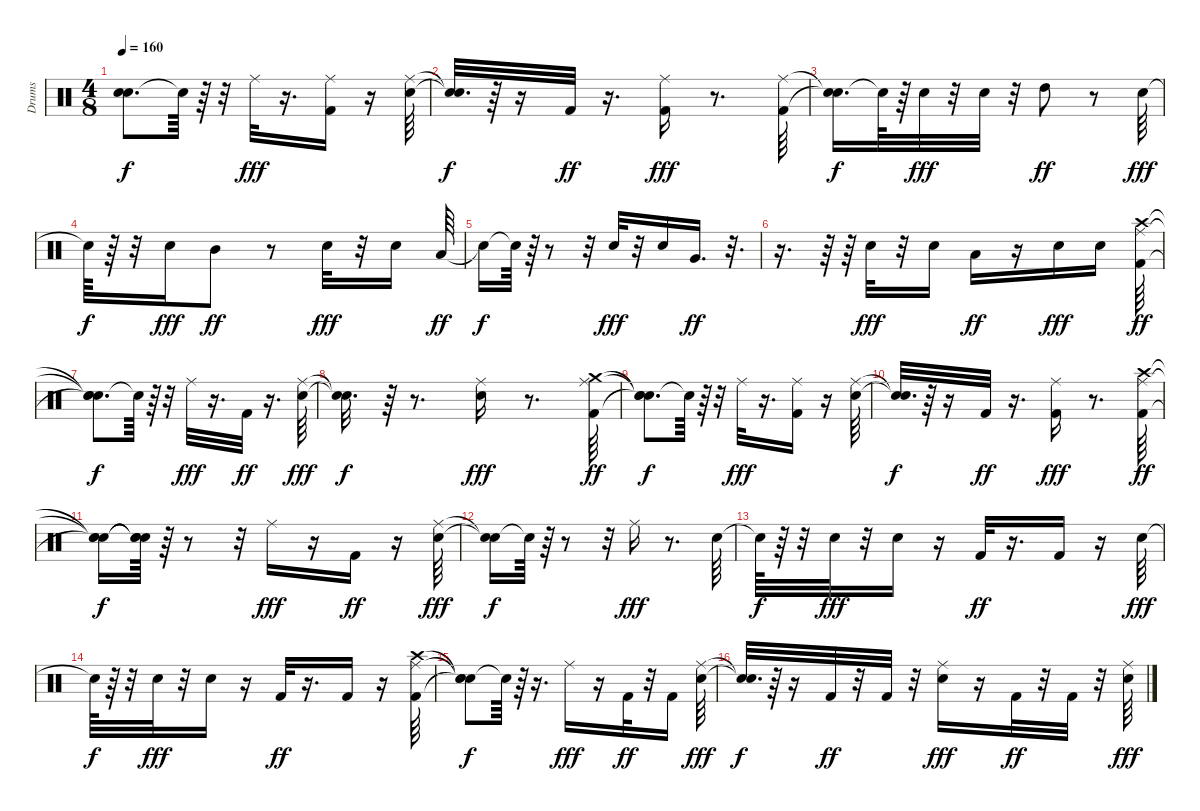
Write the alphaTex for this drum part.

\track ("Drums" "Drums") {instrument percussion}
\staff {score}
\articulation defaults
\ts (4 8)
\tempo 160
\clef neutral
\ks c
("Snare (hit)"{t} "Snare (hit)"{t}).8{d dy f} "Snare (hit)"{t}.64 r.64 r.32 "Ride (middle)".32{dy fff} r.16{d} ("Kick (hit) 2" "Ride (middle)").16 r.16 ("Snare (hit) 2" "Ride (middle)").64 |
("Snare (hit)"{t} "Snare (hit)"{t}).32{d dy f} r.64 r.16 "Kick (hit) 2".32{dy ff} r.16{d} ("Kick (hit) 2" "Ride (middle)").16{dy fff} r.8{d} ("Kick (hit) 2" "Ride (middle)").64 |
("Snare (hit)"{t} "Snare (hit)"{t}).16{d dy f} "Snare (hit)"{t}.64 r.64 "Snare (hit) 2".32{dy fff} r.32 "Snare (hit) 2".32 r.32 "High Tom (hit)".8{dy ff} r.8 "Snare (hit) 2".64{dy fff} |
"Snare (hit)"{t}.64{dy f} r.64 r.32 "Snare (hit) 2".16{dy fff} "Mid Tom (hit)".8{dy ff} r.8 "Snare (hit) 2".32{dy fff} r.32 "Snare (hit) 2".16 "Low Tom (hit)".64{dy ff} |
"Snare (hit)"{t}.16{dy f} "Snare (hit)"{t}.64 r.64 r.8 r.32 "Snare (hit) 2".32{dy fff} r.32 "Snare (hit) 2".16 "Very Low Tom (hit)".16{d dy ff} r.32{d} |
r.16{d} r.64 r.64 "Snare (hit) 2".32{dy fff} r.32 "Snare (hit) 2".16 "Low Floor Tom (hit)".16{dy ff} r.16 "Snare (hit) 2".16{dy fff} "Snare (hit) 2".16 ("Kick (hit) 2" "Ride (middle)" "Crash high (hit)").64{dy ff} |
("Snare (hit)"{t} "Snare (hit)"{t} "Snare (hit)"{t}).8{d dy f} "Snare (hit)"{t}.64 r.64 r.32 "Ride (middle)".32{dy fff} r.16{d} "Kick (hit) 2".32{dy ff} r.16{d} ("Snare (hit) 2" "Ride (middle)").64{dy fff} |
("Snare (hit)"{t} "Snare (hit)"{t}).32{d dy f} r.64 r.8{d} ("Snare (hit) 2" "Ride (middle)").16{dy fff} r.8{d} ("Kick (hit) 2" "Ride (middle)" "Crash medium (hit)").64{dy ff} |
("Snare (hit)"{t} "Snare (hit)"{t} "Snare (hit)"{t}).8{d dy f} "Snare (hit)"{t}.64 r.64 r.32 "Ride (middle)".32{dy fff} r.16{d} ("Kick (hit) 2" "Ride (middle)").16 r.16 ("Snare (hit) 2" "Ride (middle)").64 |
("Snare (hit)"{t} "Snare (hit)"{t}).32{d dy f} r.64 r.16 "Kick (hit) 2".32{dy ff} r.16{d} ("Kick (hit) 2" "Ride (middle)").16{dy fff} r.8{d} ("Kick (hit) 2" "Ride (middle)" "Crash high (hit)").64{dy ff} |
("Snare (hit)"{t} "Snare (hit)"{t} "Snare (hit)"{t}).16{dy f} ("Snare (hit)"{t} "Snare (hit)"{t} "Snare (hit)"{t}).64 r.64 r.8 r.32 "Ride (middle)".16{dy fff} r.16 "Kick (hit) 2".16{dy ff} r.16 ("Snare (hit) 2" "Ride (middle)").64{dy fff} |
("Snare (hit)"{t} "Snare (hit)"{t}).16{dy f} "Snare (hit)"{t}.64 r.64 r.8 r.32 "Ride (middle)".16{dy fff} r.8{d} "Snare (hit) 2".64 |
"Snare (hit)"{t}.64{dy f} r.64 r.32 "Snare (hit) 2".32{dy fff} r.32 "Snare (hit) 2".16 r.16 "Kick (hit) 2".32{dy ff} r.16{d} "Kick (hit) 2".16 r.16 "Snare (hit) 2".64{dy fff} |
"Snare (hit)"{t}.64{dy f} r.64 r.32 "Snare (hit) 2".32{dy fff} r.32 "Snare (hit) 2".16 r.16 "Kick (hit) 2".32{dy ff} r.16{d} "Kick (hit) 2".16 r.16 ("Kick (hit) 2" "Ride (middle)" "Crash high (hit)").64 |
("Snare (hit)"{t} "Snare (hit)"{t} "Snare (hit)"{t}).8{dy f} "Snare (hit)"{t}.64 r.64 r.16{d} "Ride (middle)".16{dy fff} r.16 "Kick (hit) 2".32{dy ff} r.32 "Kick (hit) 2".16 ("Snare (hit) 2" "Ride (middle)").64{dy fff} |
("Snare (hit)"{t} "Snare (hit)"{t}).32{d dy f} r.64 r.16 "Kick (hit) 2".32{dy ff} r.32 "Kick (hit) 2".32 r.32 ("Snare (hit) 2" "Ride (middle)").16{dy fff} r.16 "Kick (hit) 2".32{dy ff} r.32 "Kick (hit) 2".32 r.32 ("Snare (hit) 2" "Ride (middle)").64{dy fff}
